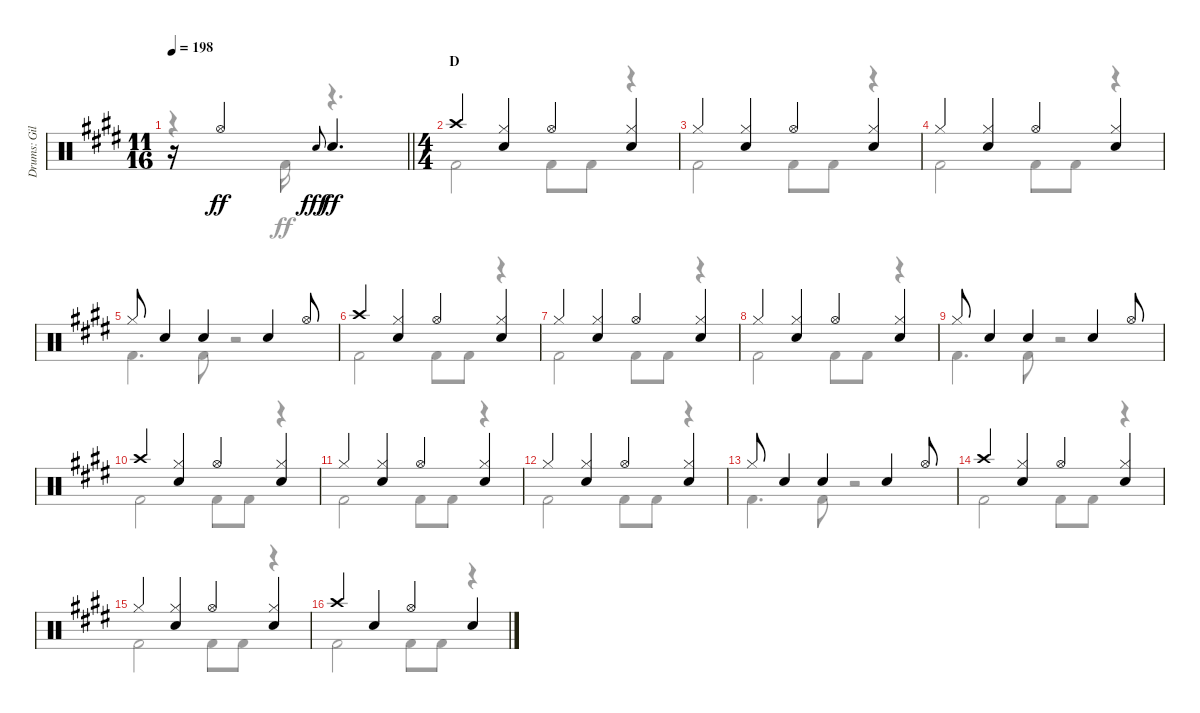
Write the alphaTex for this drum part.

\track ("Drums: Gil" "Drums: Gil") {instrument percussion}
\staff {score}
\articulation defaults
\voice
\ts (11 16)
\tempo 198
\clef neutral
\barLineRight lightlight
\ks e
r.16{dy ff} "Hi-Hat (open)".4 "Electric Snare (hit)".8{gr onbeat dy fff} "Snare (hit) 2".4{d dy ff} |
\ts (4 4)
\section ("" "D")
"Crash high (hit)".4 ("Hi-Hat (closed)" "Snare (hit) 2").4{beam merge} "Hi-Hat (open)".4 ("Hi-Hat (closed)" "Snare (hit) 2").4 |
"Hi-Hat (closed)".4 ("Hi-Hat (closed)" "Snare (hit) 2").4{beam merge} "Hi-Hat (open)".4 ("Hi-Hat (closed)" "Snare (hit) 2").4 |
"Hi-Hat (closed)".4 ("Hi-Hat (closed)" "Snare (hit) 2").4{beam merge} "Hi-Hat (open)".4 ("Hi-Hat (closed)" "Snare (hit) 2").4 |
"Hi-Hat (closed)".8 "Snare (hit) 2".4 "Snare (hit) 2".4 "Snare (hit) 2".4 "Hi-Hat (open)".8 |
"Crash high (hit)".4 ("Hi-Hat (closed)" "Snare (hit) 2").4{beam merge} "Hi-Hat (open)".4 ("Hi-Hat (closed)" "Snare (hit) 2").4 |
"Hi-Hat (closed)".4 ("Hi-Hat (closed)" "Snare (hit) 2").4{beam merge} "Hi-Hat (open)".4 ("Hi-Hat (closed)" "Snare (hit) 2").4 |
"Hi-Hat (closed)".4 ("Hi-Hat (closed)" "Snare (hit) 2").4{beam merge} "Hi-Hat (open)".4 ("Hi-Hat (closed)" "Snare (hit) 2").4 |
"Hi-Hat (closed)".8 "Snare (hit) 2".4 "Snare (hit) 2".4 "Snare (hit) 2".4 "Hi-Hat (open)".8 |
"Crash high (hit)".4 ("Hi-Hat (closed)" "Snare (hit) 2").4{beam merge} "Hi-Hat (open)".4 ("Hi-Hat (closed)" "Snare (hit) 2").4 |
"Hi-Hat (closed)".4 ("Hi-Hat (closed)" "Snare (hit) 2").4{beam merge} "Hi-Hat (open)".4 ("Hi-Hat (closed)" "Snare (hit) 2").4 |
"Hi-Hat (closed)".4 ("Hi-Hat (closed)" "Snare (hit) 2").4{beam merge} "Hi-Hat (open)".4 ("Hi-Hat (closed)" "Snare (hit) 2").4 |
"Hi-Hat (closed)".8 "Snare (hit) 2".4 "Snare (hit) 2".4 "Snare (hit) 2".4 "Hi-Hat (open)".8 |
"Crash high (hit)".4 ("Hi-Hat (closed)" "Snare (hit) 2").4{beam merge} "Hi-Hat (open)".4 ("Hi-Hat (closed)" "Snare (hit) 2").4 |
"Hi-Hat (closed)".4 ("Hi-Hat (closed)" "Snare (hit) 2").4{beam merge} "Hi-Hat (open)".4 ("Hi-Hat (closed)" "Snare (hit) 2").4 |
"Crash high (hit)".4 "Snare (hit) 2".4{beam merge} "Hi-Hat (open)".4 "Snare (hit) 2".4
\voice
\clef neutral
\ottava regular
\simile none
\barLineRight lightlight
\ks e
r.4{dy ff} "Kick (hit) 2".16 r.4{d} |
"Kick (hit) 2".2 "Kick (hit) 2".8 "Kick (hit) 2".8 r.4 |
"Kick (hit) 2".2 "Kick (hit) 2".8 "Kick (hit) 2".8 r.4 |
"Kick (hit) 2".2 "Kick (hit) 2".8 "Kick (hit) 2".8 r.4 |
"Kick (hit) 2".4{d} "Kick (hit) 2".8 r.2 |
"Kick (hit) 2".2 "Kick (hit) 2".8 "Kick (hit) 2".8 r.4 |
"Kick (hit) 2".2 "Kick (hit) 2".8 "Kick (hit) 2".8 r.4 |
"Kick (hit) 2".2 "Kick (hit) 2".8 "Kick (hit) 2".8 r.4 |
"Kick (hit) 2".4{d} "Kick (hit) 2".8 r.2 |
"Kick (hit) 2".2 "Kick (hit) 2".8 "Kick (hit) 2".8 r.4 |
"Kick (hit) 2".2 "Kick (hit) 2".8 "Kick (hit) 2".8 r.4 |
"Kick (hit) 2".2 "Kick (hit) 2".8 "Kick (hit) 2".8 r.4 |
"Kick (hit) 2".4{d} "Kick (hit) 2".8 r.2 |
"Kick (hit) 2".2 "Kick (hit) 2".8 "Kick (hit) 2".8 r.4 |
"Kick (hit) 2".2 "Kick (hit) 2".8 "Kick (hit) 2".8 r.4 |
"Kick (hit) 2".2 "Kick (hit) 2".8 "Kick (hit) 2".8 r.4
